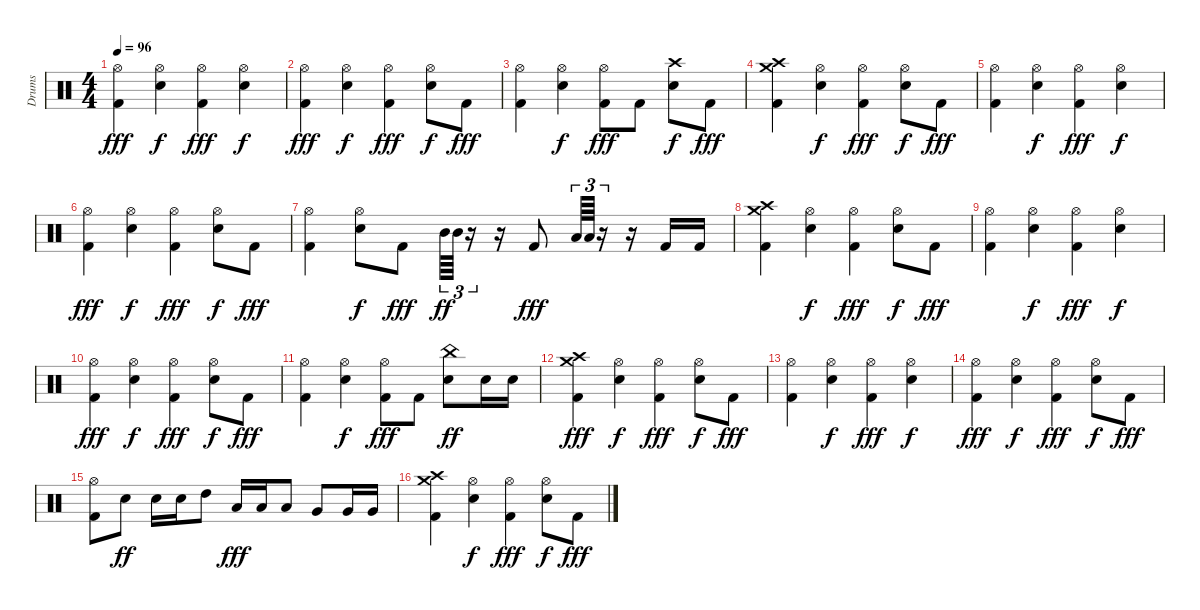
\track ("Drums" "Drums") {instrument percussion}
\staff {score}
\articulation defaults
\ts (4 4)
\tempo 96
\clef neutral
\ks c
("Hi-Hat (open)" "Kick (hit) 2").4{dy fff} ("Hi-Hat (open)" "Electric Snare (hit)").4{dy f} ("Hi-Hat (open)" "Kick (hit) 2").4{dy fff} ("Hi-Hat (open)" "Electric Snare (hit)").4{dy f} |
("Hi-Hat (open)" "Kick (hit) 2").4{dy fff} ("Hi-Hat (open)" "Electric Snare (hit)").4{dy f} ("Hi-Hat (open)" "Kick (hit) 2").4{dy fff} ("Hi-Hat (open)" "Electric Snare (hit)").8{dy f} "Kick (hit) 2".8{dy fff} |
("Hi-Hat (open)" "Kick (hit) 2").4 ("Hi-Hat (open)" "Electric Snare (hit)").4{dy f} ("Hi-Hat (open)" "Kick (hit) 2").8{dy fff} "Kick (hit) 2".8 ("Crash high (hit)" "Electric Snare (hit)").8{dy f} "Kick (hit) 2".8{dy fff} |
("Crash high (hit)" "Crash medium (hit)" "Kick (hit) 2").4 ("Hi-Hat (open)" "Electric Snare (hit)").4{dy f} ("Hi-Hat (open)" "Kick (hit) 2").4{dy fff} ("Hi-Hat (open)" "Electric Snare (hit)").8{dy f} "Kick (hit) 2".8{dy fff} |
("Hi-Hat (open)" "Kick (hit) 2").4 ("Hi-Hat (open)" "Electric Snare (hit)").4{dy f} ("Hi-Hat (open)" "Kick (hit) 2").4{dy fff} ("Hi-Hat (open)" "Electric Snare (hit)").4{dy f} |
("Hi-Hat (open)" "Kick (hit) 2").4{dy fff} ("Hi-Hat (open)" "Electric Snare (hit)").4{dy f} ("Hi-Hat (open)" "Kick (hit) 2").4{dy fff} ("Hi-Hat (open)" "Electric Snare (hit)").8{dy f} "Kick (hit) 2".8{dy fff} |
("Hi-Hat (open)" "Kick (hit) 2").4 ("Hi-Hat (open)" "Electric Snare (hit)").8{dy f} "Kick (hit) 2".8{dy fff} "Mid Tom (hit)".64{tu (3 2) dy ff} "Mid Tom (hit)".64{tu (3 2)} r.16{tu (3 2)} r.16 "Kick (hit) 2".8{dy fff} "Low Tom (hit)".64{tu (3 2)} "Low Tom (hit)".64{tu (3 2)} r.16{tu (3 2)} r.16 "Kick (hit) 2".16 "Kick (hit) 2".16 |
("Crash high (hit)" "Crash medium (hit)" "Kick (hit) 2").4 ("Hi-Hat (open)" "Electric Snare (hit)").4{dy f} ("Hi-Hat (open)" "Kick (hit) 2").4{dy fff} ("Hi-Hat (open)" "Electric Snare (hit)").8{dy f} "Kick (hit) 2".8{dy fff} |
("Hi-Hat (open)" "Kick (hit) 2").4 ("Hi-Hat (open)" "Electric Snare (hit)").4{dy f} ("Hi-Hat (open)" "Kick (hit) 2").4{dy fff} ("Hi-Hat (open)" "Electric Snare (hit)").4{dy f} |
("Hi-Hat (open)" "Kick (hit) 2").4{dy fff} ("Hi-Hat (open)" "Electric Snare (hit)").4{dy f} ("Hi-Hat (open)" "Kick (hit) 2").4{dy fff} ("Hi-Hat (open)" "Electric Snare (hit)").8{dy f} "Kick (hit) 2".8{dy fff} |
("Hi-Hat (open)" "Kick (hit) 2").4 ("Hi-Hat (open)" "Electric Snare (hit)").4{dy f} ("Hi-Hat (open)" "Kick (hit) 2").8{dy fff} "Kick (hit) 2".8 ("China (hit)" "Electric Snare (hit)").8{dy ff} "Electric Snare (hit)".16 "Electric Snare (hit)".16 |
("Crash high (hit)" "Crash medium (hit)" "Kick (hit) 2").4{dy fff} ("Hi-Hat (open)" "Electric Snare (hit)").4{dy f} ("Hi-Hat (open)" "Kick (hit) 2").4{dy fff} ("Hi-Hat (open)" "Electric Snare (hit)").8{dy f} "Kick (hit) 2".8{dy fff} |
("Hi-Hat (open)" "Kick (hit) 2").4 ("Hi-Hat (open)" "Electric Snare (hit)").4{dy f} ("Hi-Hat (open)" "Kick (hit) 2").4{dy fff} ("Hi-Hat (open)" "Electric Snare (hit)").4{dy f} |
("Hi-Hat (open)" "Kick (hit) 2").4{dy fff} ("Hi-Hat (open)" "Electric Snare (hit)").4{dy f} ("Hi-Hat (open)" "Kick (hit) 2").4{dy fff} ("Hi-Hat (open)" "Electric Snare (hit)").8{dy f} "Kick (hit) 2".8{dy fff} |
("Hi-Hat (open)" "Kick (hit) 2").8 "Electric Snare (hit)".8{dy ff} "Electric Snare (hit)".16 "Electric Snare (hit)".16 "High Tom (hit)".8 "Low Tom (hit)".16{dy fff} "Low Tom (hit)".16 "Low Tom (hit)".8 "Very Low Tom (hit)".8 "Very Low Tom (hit)".16 "Very Low Tom (hit)".16 |
("Crash high (hit)" "Crash medium (hit)" "Kick (hit) 2").4 ("Hi-Hat (open)" "Electric Snare (hit)").4{dy f} ("Hi-Hat (open)" "Kick (hit) 2").4{dy fff} ("Hi-Hat (open)" "Electric Snare (hit)").8{dy f} "Kick (hit) 2".8{dy fff}
